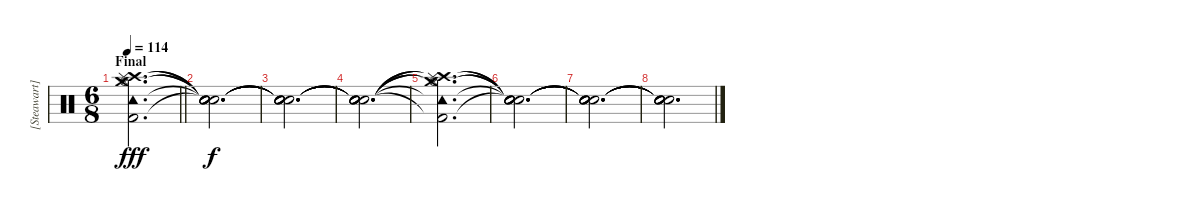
\track ("[Steawart] Drums" "[Steawart]") {solo instrument percussion}
\staff {score}
\articulation defaults
\ts (6 8)
\section ("" "Final ")
\tempo 114
\clef neutral
\barLineRight lightlight
\ks c
("Crash medium (hit)" "Hi-Hat (open)" "Crash high (hit)" "Tambourine (hit)" "Splash (hit)" "Kick (hit) 2").2{d dy fff} |
("Snare (hit)"{t} "Snare (hit)"{t} "Snare (hit)"{t} "Snare (hit)"{t} "Snare (hit)"{t} "Snare (hit)"{t}).2{d dy f} |
("Snare (hit)"{t} "Snare (hit)"{t} "Snare (hit)"{t} "Snare (hit)"{t} "Snare (hit)"{t} "Snare (hit)"{t}).2{d} |
("Snare (hit)"{t} "Snare (hit)"{t} "Snare (hit)"{t} "Snare (hit)"{t} "Snare (hit)"{t} "Snare (hit)"{t}).2{d} |
("Crash medium (hit)"{t} "Hi-Hat (open)"{t} "Crash high (hit)"{t} "Tambourine (hit)"{t} "Splash (hit)"{t} "Kick (hit) 2"{t}).2{d} |
("Snare (hit)"{t} "Snare (hit)"{t} "Snare (hit)"{t} "Snare (hit)"{t} "Snare (hit)"{t} "Snare (hit)"{t}).2{d} |
("Snare (hit)"{t} "Snare (hit)"{t} "Snare (hit)"{t} "Snare (hit)"{t} "Snare (hit)"{t} "Snare (hit)"{t}).2{d} |
("Snare (hit)"{t} "Snare (hit)"{t} "Snare (hit)"{t} "Snare (hit)"{t} "Snare (hit)"{t} "Snare (hit)"{t}).2{d}
